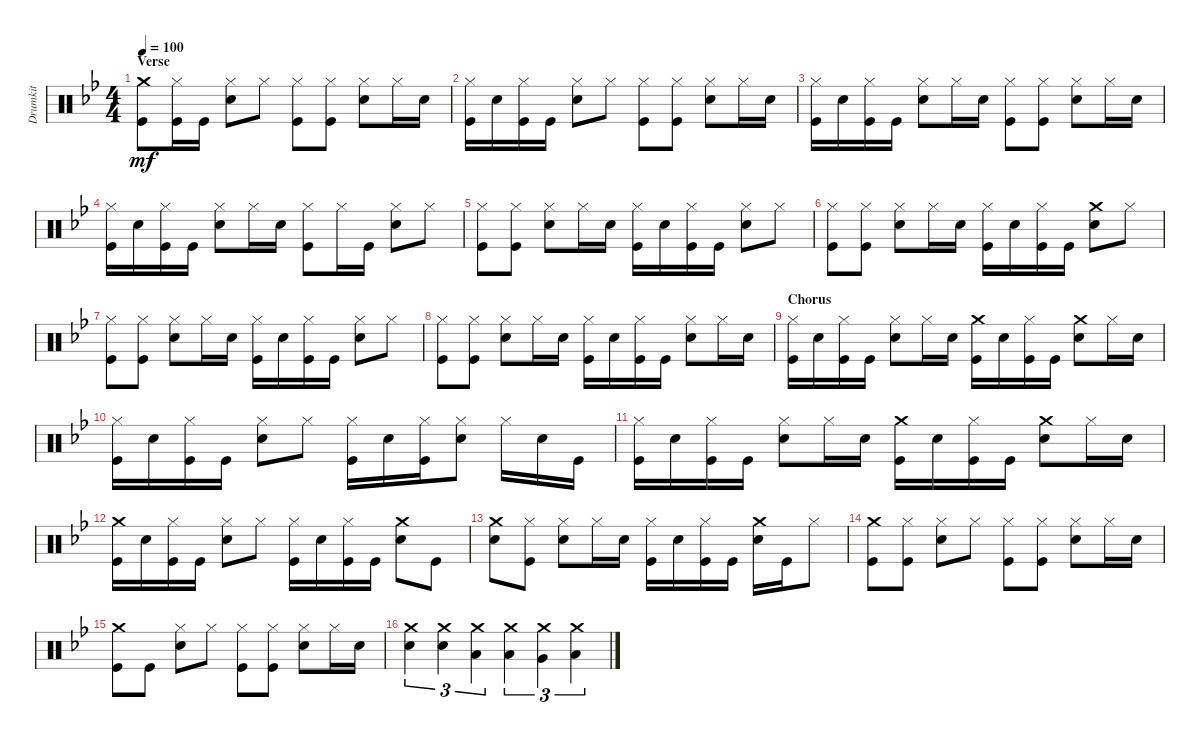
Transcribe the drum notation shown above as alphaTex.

\track ("Drumkit" "Drumkit") {instrument percussion}
\staff {score}
\articulation defaults
\ts (4 4)
\section ("" "Verse")
\tempo 100
\clef neutral
\ks bb
("Kick (hit)" "Crash medium (hit)").8{dy mf} ("Kick (hit)" "Hi-Hat (closed)").16 "Kick (hit)".16 ("Snare (hit) 2" "Hi-Hat (closed)").8 "Hi-Hat (closed)".8 ("Hi-Hat (closed)" "Kick (hit)").8 ("Kick (hit)" "Hi-Hat (closed)").8 ("Snare (hit) 2" "Hi-Hat (closed)").8 "Hi-Hat (closed)".16 "Snare (hit) 2".16 |
("Kick (hit)" "Hi-Hat (closed)").16 "Snare (hit) 2".16 ("Kick (hit)" "Hi-Hat (closed)").16 "Kick (hit)".16 ("Snare (hit) 2" "Hi-Hat (closed)").8 "Hi-Hat (closed)".8 ("Hi-Hat (closed)" "Kick (hit)").8 ("Kick (hit)" "Hi-Hat (closed)").8 ("Snare (hit) 2" "Hi-Hat (closed)").8 "Hi-Hat (closed)".16 "Snare (hit) 2".16 |
("Kick (hit)" "Hi-Hat (closed)").16 "Snare (hit) 2".16 ("Kick (hit)" "Hi-Hat (closed)").16 "Kick (hit)".16 ("Snare (hit) 2" "Hi-Hat (closed)").8 "Hi-Hat (closed)".16 "Snare (hit) 2".16 ("Hi-Hat (closed)" "Kick (hit)").8 ("Kick (hit)" "Hi-Hat (closed)").8 ("Snare (hit) 2" "Hi-Hat (closed)").8 "Hi-Hat (closed)".16 "Snare (hit) 2".16 |
("Kick (hit)" "Hi-Hat (closed)").16 "Snare (hit) 2".16 ("Kick (hit)" "Hi-Hat (closed)").16 "Kick (hit)".16 ("Snare (hit) 2" "Hi-Hat (closed)").8 "Hi-Hat (closed)".16 "Snare (hit) 2".16 ("Hi-Hat (closed)" "Kick (hit)").8 "Hi-Hat (closed)".16 "Kick (hit)".16 ("Snare (hit) 2" "Hi-Hat (closed)").8 "Hi-Hat (closed)".8 |
("Kick (hit)" "Hi-Hat (closed)").8 ("Hi-Hat (closed)" "Kick (hit)").8 ("Snare (hit) 2" "Hi-Hat (closed)").8 "Hi-Hat (closed)".16 "Snare (hit) 2".16 ("Kick (hit)" "Hi-Hat (closed)").16 "Snare (hit) 2".16 ("Kick (hit)" "Hi-Hat (closed)").16 "Kick (hit)".16 ("Snare (hit) 2" "Hi-Hat (closed)").8 "Hi-Hat (closed)".8 |
("Kick (hit)" "Hi-Hat (closed)").8 ("Hi-Hat (closed)" "Kick (hit)").8 ("Snare (hit) 2" "Hi-Hat (closed)").8 "Hi-Hat (closed)".16 "Snare (hit) 2".16 ("Kick (hit)" "Hi-Hat (closed)").16 "Snare (hit) 2".16 ("Kick (hit)" "Hi-Hat (closed)").16 "Kick (hit)".16 ("Crash medium (hit)" "Snare (hit) 2").8 "Hi-Hat (closed)".8 |
("Kick (hit)" "Hi-Hat (closed)").8 ("Hi-Hat (closed)" "Kick (hit)").8 ("Snare (hit) 2" "Hi-Hat (closed)").8 "Hi-Hat (closed)".16 "Snare (hit) 2".16 ("Kick (hit)" "Hi-Hat (closed)").16 "Snare (hit) 2".16 ("Kick (hit)" "Hi-Hat (closed)").16 "Kick (hit)".16 ("Snare (hit) 2" "Hi-Hat (closed)").8 "Hi-Hat (closed)".8 |
("Kick (hit)" "Hi-Hat (closed)").8 ("Hi-Hat (closed)" "Kick (hit)").8 ("Snare (hit) 2" "Hi-Hat (closed)").8 "Hi-Hat (closed)".16 "Snare (hit) 2".16 ("Kick (hit)" "Hi-Hat (closed)").16 "Snare (hit) 2".16 ("Kick (hit)" "Hi-Hat (closed)").16 "Kick (hit)".16 ("Snare (hit) 2" "Hi-Hat (closed)").8 "Hi-Hat (closed)".16 "Snare (hit) 2".16 |
\section ("" "Chorus")
("Kick (hit)" "Hi-Hat (closed)").16 "Snare (hit) 2".16 ("Kick (hit)" "Hi-Hat (closed)").16 "Kick (hit)".16 ("Snare (hit) 2" "Hi-Hat (closed)").8 "Hi-Hat (closed)".16 "Snare (hit) 2".16 ("Kick (hit)" "Crash medium (hit)").16 "Snare (hit) 2".16 ("Kick (hit)" "Hi-Hat (closed)").16 "Kick (hit)".16 ("Snare (hit) 2" "Crash medium (hit)").8 "Hi-Hat (closed)".16 "Snare (hit) 2".16 |
("Kick (hit)" "Hi-Hat (closed)").16 "Snare (hit) 2".16 ("Kick (hit)" "Hi-Hat (closed)").16 "Kick (hit)".16 ("Snare (hit) 2" "Hi-Hat (closed)").8 "Hi-Hat (closed)".8 ("Kick (hit)" "Hi-Hat (closed)").16 "Snare (hit) 2".16 ("Hi-Hat (closed)" "Kick (hit)").16 ("Snare (hit) 2" "Hi-Hat (closed)").8 "Hi-Hat (closed)".16 "Snare (hit) 2".16 "Kick (hit)".16 |
("Kick (hit)" "Hi-Hat (closed)").16 "Snare (hit) 2".16 ("Kick (hit)" "Hi-Hat (closed)").16 "Kick (hit)".16 ("Snare (hit) 2" "Hi-Hat (closed)").8 "Hi-Hat (closed)".16 "Snare (hit) 2".16 ("Kick (hit)" "Crash medium (hit)").16 "Snare (hit) 2".16 ("Kick (hit)" "Hi-Hat (closed)").16 "Kick (hit)".16 ("Snare (hit) 2" "Crash medium (hit)").8 "Hi-Hat (closed)".16 "Snare (hit) 2".16 |
("Kick (hit)" "Crash medium (hit)").16 "Snare (hit) 2".16 ("Kick (hit)" "Hi-Hat (closed)").16 "Kick (hit)".16 ("Snare (hit) 2" "Hi-Hat (closed)").8 "Hi-Hat (closed)".8 ("Kick (hit)" "Hi-Hat (closed)").16 "Snare (hit) 2".16 ("Kick (hit)" "Hi-Hat (closed)").16 "Kick (hit)".16 ("Crash medium (hit)" "Snare (hit) 2").8 "Kick (hit)".8 |
("Crash medium (hit)" "Snare (hit) 2").8 ("Kick (hit)" "Hi-Hat (closed)").8 ("Snare (hit) 2" "Hi-Hat (closed)").8 "Hi-Hat (closed)".16 "Snare (hit) 2".16 ("Kick (hit)" "Hi-Hat (closed)").16 "Snare (hit) 2".16 ("Kick (hit)" "Hi-Hat (closed)").16 "Kick (hit)".16 ("Crash medium (hit)" "Snare (hit) 2").16 "Kick (hit)".16 "Hi-Hat (closed)".8 |
("Crash medium (hit)" "Kick (hit)").8 ("Kick (hit)" "Hi-Hat (closed)").8 ("Snare (hit) 2" "Hi-Hat (closed)").8 "Hi-Hat (closed)".8 ("Kick (hit)" "Hi-Hat (closed)").8 ("Hi-Hat (closed)" "Kick (hit)").8 ("Snare (hit) 2" "Hi-Hat (closed)").8 "Hi-Hat (closed)".16 "Snare (hit) 2".16 |
("Crash medium (hit)" "Kick (hit)").8 "Kick (hit)".8 ("Snare (hit) 2" "Hi-Hat (closed)").8 "Hi-Hat (closed)".8 ("Hi-Hat (closed)" "Kick (hit)").8 ("Kick (hit)" "Hi-Hat (closed)").8 ("Snare (hit) 2" "Hi-Hat (closed)").8 "Hi-Hat (closed)".16 "Snare (hit) 2".16 |
("Crash medium (hit)" "Snare (hit) 2").4{tu (3 2)} ("Crash medium (hit)" "Snare (hit) 2").4{tu (3 2)} ("Crash medium (hit)" "Low Tom (hit)").4{tu (3 2)} ("Crash medium (hit)" "Low Tom (hit)").4{tu (3 2)} ("Crash medium (hit)" "Very Low Tom (hit)").4{tu (3 2)} ("Crash medium (hit)" "Low Floor Tom (hit)").4{tu (3 2)}
